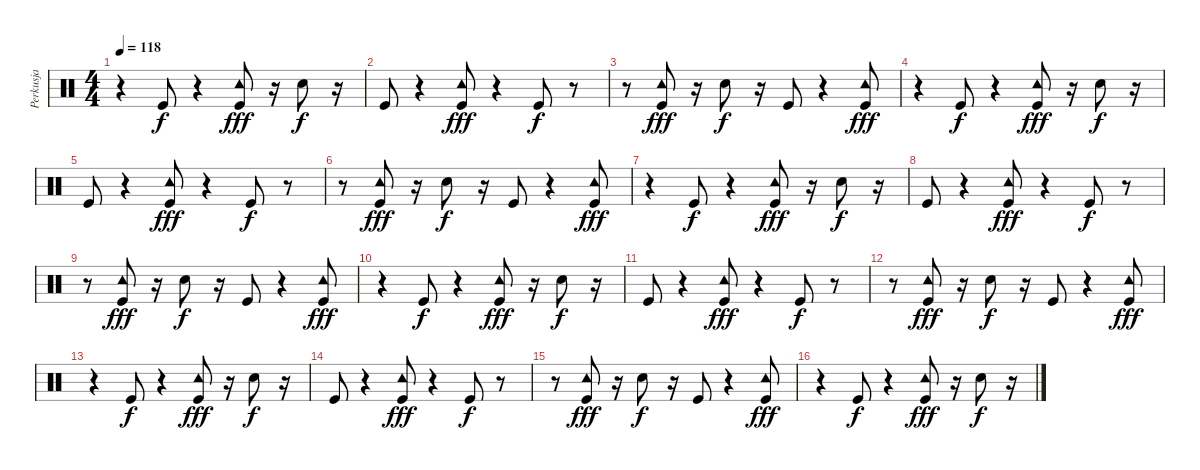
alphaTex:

\track ("Perkusja" "Perkusja") {instrument percussion}
\staff {score}
\articulation defaults
\ts (4 4)
\tempo 118
\clef neutral
\ks c
r.4{dy fff} "Kick (hit)".8{dy f} r.4 ("Kick (hit)" "Tambourine (hit)").8{dy fff} r.16 "Electric Snare (hit)".8{dy f} r.16 |
"Kick (hit)".8 r.4 ("Kick (hit)" "Tambourine (hit)").8{dy fff} r.4 "Kick (hit)".8{dy f} r.8 |
r.8 ("Kick (hit)" "Tambourine (hit)").8{dy fff} r.16 "Electric Snare (hit)".8{dy f} r.16 "Kick (hit)".8 r.4 ("Kick (hit)" "Tambourine (hit)").8{dy fff} |
r.4 "Kick (hit)".8{dy f} r.4 ("Kick (hit)" "Tambourine (hit)").8{dy fff} r.16 "Electric Snare (hit)".8{dy f} r.16 |
"Kick (hit)".8 r.4 ("Kick (hit)" "Tambourine (hit)").8{dy fff} r.4 "Kick (hit)".8{dy f} r.8 |
r.8 ("Kick (hit)" "Tambourine (hit)").8{dy fff} r.16 "Electric Snare (hit)".8{dy f} r.16 "Kick (hit)".8 r.4 ("Kick (hit)" "Tambourine (hit)").8{dy fff} |
r.4 "Kick (hit)".8{dy f} r.4 ("Kick (hit)" "Tambourine (hit)").8{dy fff} r.16 "Electric Snare (hit)".8{dy f} r.16 |
"Kick (hit)".8 r.4 ("Kick (hit)" "Tambourine (hit)").8{dy fff} r.4 "Kick (hit)".8{dy f} r.8 |
r.8 ("Kick (hit)" "Tambourine (hit)").8{dy fff} r.16 "Electric Snare (hit)".8{dy f} r.16 "Kick (hit)".8 r.4 ("Kick (hit)" "Tambourine (hit)").8{dy fff} |
r.4 "Kick (hit)".8{dy f} r.4 ("Kick (hit)" "Tambourine (hit)").8{dy fff} r.16 "Electric Snare (hit)".8{dy f} r.16 |
"Kick (hit)".8 r.4 ("Kick (hit)" "Tambourine (hit)").8{dy fff} r.4 "Kick (hit)".8{dy f} r.8 |
r.8 ("Kick (hit)" "Tambourine (hit)").8{dy fff} r.16 "Electric Snare (hit)".8{dy f} r.16 "Kick (hit)".8 r.4 ("Kick (hit)" "Tambourine (hit)").8{dy fff} |
r.4 "Kick (hit)".8{dy f} r.4 ("Kick (hit)" "Tambourine (hit)").8{dy fff} r.16 "Electric Snare (hit)".8{dy f} r.16 |
"Kick (hit)".8 r.4 ("Kick (hit)" "Tambourine (hit)").8{dy fff} r.4 "Kick (hit)".8{dy f} r.8 |
r.8 ("Kick (hit)" "Tambourine (hit)").8{dy fff} r.16 "Electric Snare (hit)".8{dy f} r.16 "Kick (hit)".8 r.4 ("Kick (hit)" "Tambourine (hit)").8{dy fff} |
r.4 "Kick (hit)".8{dy f} r.4 ("Kick (hit)" "Tambourine (hit)").8{dy fff} r.16 "Electric Snare (hit)".8{dy f} r.16
